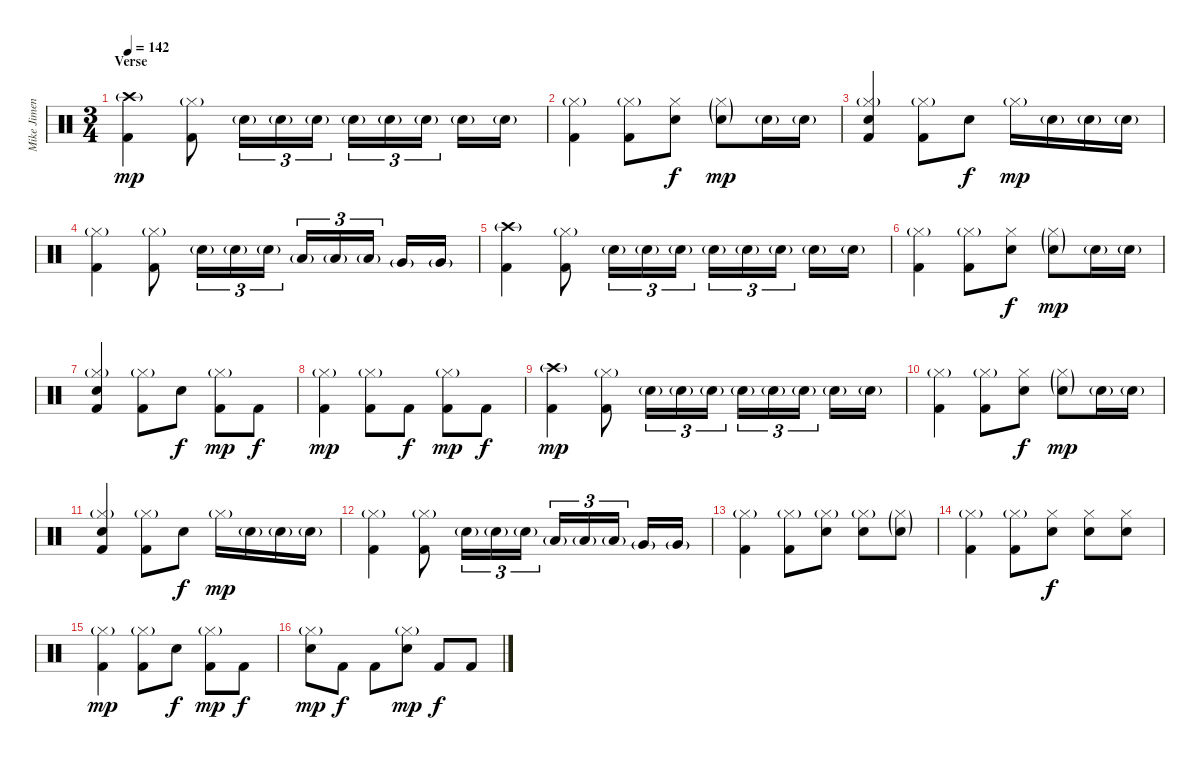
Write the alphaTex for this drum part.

\track ("Mike Jimenez" "Mike Jimen") {instrument percussion}
\staff {score}
\articulation defaults
\ts (3 4)
\section ("" "Verse")
\tempo 142
\clef neutral
\ks c
("Crash high (hit)"{g} "Kick (hit) 2").4{dy mp} ("Hi-Hat (closed)"{g} "Kick (hit) 2").8 "Electric Snare (hit)"{g}.16{tu (3 2)} "Electric Snare (hit)"{g}.16{tu (3 2)} "Electric Snare (hit)"{g}.16{tu (3 2)} "Electric Snare (hit)"{g}.16{tu (3 2)} "Electric Snare (hit)"{g}.16{tu (3 2)} "Electric Snare (hit)"{g}.16{tu (3 2)} "Electric Snare (hit)"{g}.16 "Electric Snare (hit)"{g}.16 |
("Hi-Hat (closed)"{g} "Kick (hit) 2").4 ("Hi-Hat (closed)"{g} "Kick (hit) 2").8 ("Hi-Hat (closed)" "Electric Snare (hit)").8{dy f} ("Hi-Hat (closed)"{g} "Electric Snare (hit)"{g}).8{dy mp} "Electric Snare (hit)"{g}.16 "Electric Snare (hit)"{g}.16 |
("Hi-Hat (closed)"{g} "Electric Snare (hit)" "Kick (hit) 2").4 ("Hi-Hat (closed)"{g} "Kick (hit) 2").8 "Electric Snare (hit)".8{dy f} "Hi-Hat (closed)"{g}.16{dy mp} "Electric Snare (hit)"{g}.16 "Electric Snare (hit)"{g}.16 "Electric Snare (hit)"{g}.16 |
("Hi-Hat (closed)"{g} "Kick (hit) 2").4 ("Hi-Hat (closed)"{g} "Kick (hit) 2").8 "Electric Snare (hit)"{g}.16{tu (3 2)} "Electric Snare (hit)"{g}.16{tu (3 2)} "Electric Snare (hit)"{g}.16{tu (3 2)} "Low Tom (hit)"{g}.16{tu (3 2)} "Low Tom (hit)"{g}.16{tu (3 2)} "Low Tom (hit)"{g}.16{tu (3 2)} "Very Low Tom (hit)"{g}.16 "Very Low Tom (hit)"{g}.16 |
("Crash high (hit)"{g} "Kick (hit) 2").4 ("Hi-Hat (closed)"{g} "Kick (hit) 2").8 "Electric Snare (hit)"{g}.16{tu (3 2)} "Electric Snare (hit)"{g}.16{tu (3 2)} "Electric Snare (hit)"{g}.16{tu (3 2)} "Electric Snare (hit)"{g}.16{tu (3 2)} "Electric Snare (hit)"{g}.16{tu (3 2)} "Electric Snare (hit)"{g}.16{tu (3 2)} "Electric Snare (hit)"{g}.16 "Electric Snare (hit)"{g}.16 |
("Hi-Hat (closed)"{g} "Kick (hit) 2").4 ("Hi-Hat (closed)"{g} "Kick (hit) 2").8 ("Hi-Hat (closed)" "Electric Snare (hit)").8{dy f} ("Hi-Hat (closed)"{g} "Electric Snare (hit)"{g}).8{dy mp} "Electric Snare (hit)"{g}.16 "Electric Snare (hit)"{g}.16 |
("Hi-Hat (closed)"{g} "Electric Snare (hit)" "Kick (hit) 2").4 ("Hi-Hat (closed)"{g} "Kick (hit) 2").8 "Electric Snare (hit)".8{dy f} ("Hi-Hat (closed)"{g} "Kick (hit) 2").8{dy mp} "Kick (hit) 2".8{dy f} |
("Hi-Hat (closed)"{g} "Kick (hit) 2").4{dy mp} ("Hi-Hat (closed)"{g} "Kick (hit) 2").8 "Kick (hit) 2".8{dy f} ("Hi-Hat (closed)"{g} "Kick (hit) 2").8{dy mp} "Kick (hit) 2".8{dy f} |
("Crash high (hit)"{g} "Kick (hit) 2").4{dy mp} ("Hi-Hat (closed)"{g} "Kick (hit) 2").8 "Electric Snare (hit)"{g}.16{tu (3 2)} "Electric Snare (hit)"{g}.16{tu (3 2)} "Electric Snare (hit)"{g}.16{tu (3 2)} "Electric Snare (hit)"{g}.16{tu (3 2)} "Electric Snare (hit)"{g}.16{tu (3 2)} "Electric Snare (hit)"{g}.16{tu (3 2)} "Electric Snare (hit)"{g}.16 "Electric Snare (hit)"{g}.16 |
("Hi-Hat (closed)"{g} "Kick (hit) 2").4 ("Hi-Hat (closed)"{g} "Kick (hit) 2").8 ("Hi-Hat (closed)" "Electric Snare (hit)").8{dy f} ("Hi-Hat (closed)"{g} "Electric Snare (hit)"{g}).8{dy mp} "Electric Snare (hit)"{g}.16 "Electric Snare (hit)"{g}.16 |
("Hi-Hat (closed)"{g} "Electric Snare (hit)" "Kick (hit) 2").4 ("Hi-Hat (closed)"{g} "Kick (hit) 2").8 "Electric Snare (hit)".8{dy f} "Hi-Hat (closed)"{g}.16{dy mp} "Electric Snare (hit)"{g}.16 "Electric Snare (hit)"{g}.16 "Electric Snare (hit)"{g}.16 |
("Hi-Hat (closed)"{g} "Kick (hit) 2").4 ("Hi-Hat (closed)"{g} "Kick (hit) 2").8 "Electric Snare (hit)"{g}.16{tu (3 2)} "Electric Snare (hit)"{g}.16{tu (3 2)} "Electric Snare (hit)"{g}.16{tu (3 2)} "Low Tom (hit)"{g}.16{tu (3 2)} "Low Tom (hit)"{g}.16{tu (3 2)} "Low Tom (hit)"{g}.16{tu (3 2)} "Very Low Tom (hit)"{g}.16 "Very Low Tom (hit)"{g}.16 |
("Hi-Hat (closed)"{g} "Kick (hit) 2").4 ("Hi-Hat (closed)"{g} "Kick (hit) 2").8 ("Hi-Hat (closed)"{g} "Electric Snare (hit)").8 ("Hi-Hat (closed)"{g} "Electric Snare (hit)").8 ("Hi-Hat (closed)"{g} "Electric Snare (hit)"{g}).8 |
("Hi-Hat (closed)"{g} "Kick (hit) 2").4 ("Hi-Hat (closed)"{g} "Kick (hit) 2").8 ("Hi-Hat (closed)" "Electric Snare (hit)").8{dy f} ("Hi-Hat (closed)" "Electric Snare (hit)").8 ("Hi-Hat (closed)" "Electric Snare (hit)").8 |
("Hi-Hat (closed)"{g} "Kick (hit) 2").4{dy mp} ("Hi-Hat (closed)"{g} "Kick (hit) 2").8 "Electric Snare (hit)".8{dy f} ("Hi-Hat (closed)"{g} "Kick (hit) 2").8{dy mp} "Kick (hit) 2".8{dy f} |
("Hi-Hat (closed)"{g} "Electric Snare (hit)").8{dy mp} "Kick (hit) 2".8{dy f} "Kick (hit) 2".8 ("Hi-Hat (closed)"{g} "Electric Snare (hit)").8{dy mp} "Kick (hit) 2".8{dy f} "Kick (hit) 2".8
